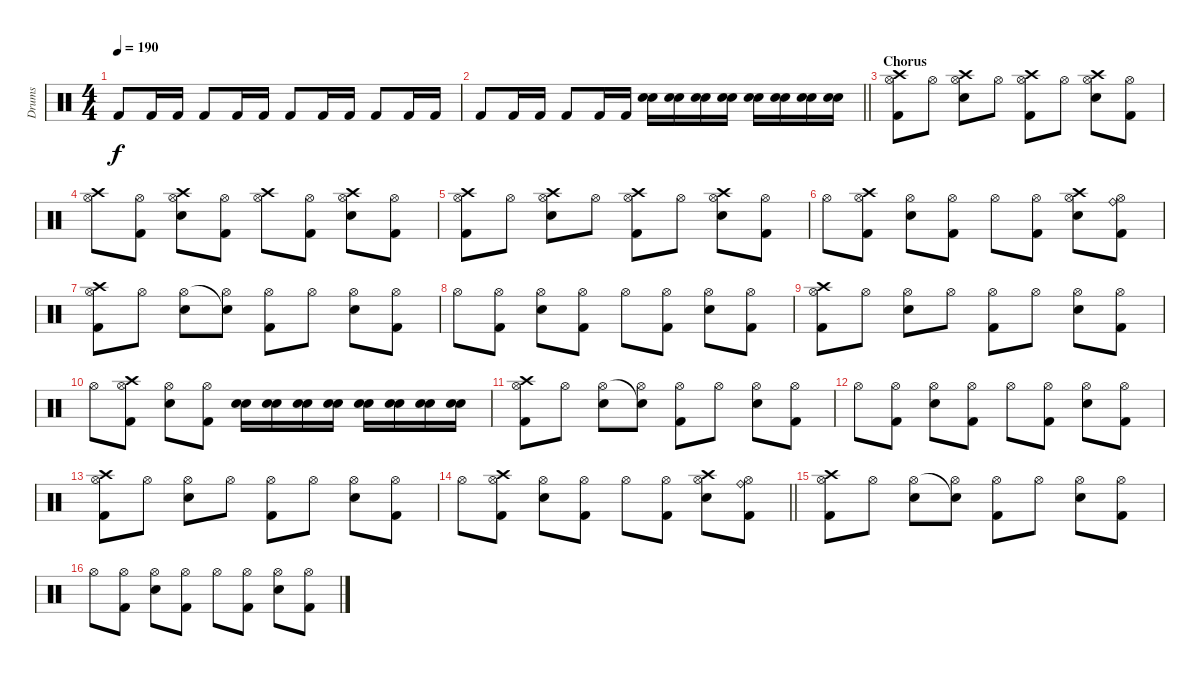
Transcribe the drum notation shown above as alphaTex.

\track ("Drums" "Drums") {instrument percussion}
\staff {score}
\articulation defaults
\ts (4 4)
\tempo 190
\clef neutral
\ks c "Kick (hit) 2".8{dy f} "Kick (hit) 2".16 "Kick (hit) 2".16 "Kick (hit) 2".8 "Kick (hit) 2".16 "Kick (hit) 2".16 "Kick (hit) 2".8 "Kick (hit) 2".16 "Kick (hit) 2".16 "Kick (hit) 2".8 "Kick (hit) 2".16 "Kick (hit) 2".16
|
\barLineRight lightlight "Kick (hit) 2".8 "Kick (hit) 2".16 "Kick (hit) 2".16 "Kick (hit) 2".8 "Kick (hit) 2".16 "Kick (hit) 2".16
("Snare (hit) 2" "Electric Snare (hit)").16 ("Snare (hit) 2" "Electric Snare (hit)").16 ("Snare (hit) 2" "Electric Snare (hit)").16 ("Snare (hit) 2" "Electric Snare (hit)").16 ("Snare (hit) 2" "Electric Snare (hit)").16 ("Snare (hit) 2" "Electric Snare (hit)").16 ("Snare (hit) 2" "Electric Snare (hit)").16 ("Snare (hit) 2" "Electric Snare (hit)").16 |
\section ("" "Chorus")
("Crash high (hit)" "Hi-Hat (open)" "Kick (hit) 2").8 "Hi-Hat (open)".8 ("Crash high (hit)" "Hi-Hat (open)" "Electric Snare (hit)").8 "Hi-Hat (open)".8 ("Crash high (hit)" "Hi-Hat (open)" "Kick (hit) 2").8 "Hi-Hat (open)".8 ("Crash high (hit)" "Hi-Hat (open)" "Electric Snare (hit)").8 ("Hi-Hat (open)" "Kick (hit) 2").8 |
("Crash high (hit)" "Hi-Hat (open)").8 ("Hi-Hat (open)" "Kick (hit) 2").8 ("Crash high (hit)" "Hi-Hat (open)" "Electric Snare (hit)").8 ("Hi-Hat (open)" "Kick (hit) 2").8 ("Crash high (hit)" "Hi-Hat (open)").8 ("Hi-Hat (open)" "Kick (hit) 2").8 ("Crash high (hit)" "Hi-Hat (open)" "Electric Snare (hit)").8 ("Hi-Hat (open)" "Kick (hit) 2").8 |
("Crash high (hit)" "Hi-Hat (open)" "Kick (hit) 2").8 "Hi-Hat (open)".8 ("Crash high (hit)" "Hi-Hat (open)" "Electric Snare (hit)").8 "Hi-Hat (open)".8 ("Crash high (hit)" "Hi-Hat (open)" "Kick (hit) 2").8 "Hi-Hat (open)".8 ("Crash high (hit)" "Hi-Hat (open)" "Electric Snare (hit)").8 ("Hi-Hat (open)" "Kick (hit) 2").8 |
"Hi-Hat (open)".8 ("Crash high (hit)" "Hi-Hat (open)" "Kick (hit) 2").8 ("Hi-Hat (open)" "Electric Snare (hit)").8 ("Hi-Hat (open)" "Kick (hit) 2").8 "Hi-Hat (open)".8 ("Hi-Hat (open)" "Kick (hit) 2").8 ("Crash high (hit)" "Hi-Hat (open)" "Electric Snare (hit)").8 ("Ride (bell)" "Hi-Hat (open)" "Kick (hit) 2").8 |
("Crash high (hit)" "Hi-Hat (open)" "Kick (hit) 2").8 "Hi-Hat (open)".8 ("Hi-Hat (open)" "Electric Snare (hit)").8 ("Snare (hit)"{t} "Hi-Hat (open)").8 ("Hi-Hat (open)" "Kick (hit) 2").8 "Hi-Hat (open)".8 ("Hi-Hat (open)" "Electric Snare (hit)").8 ("Hi-Hat (open)" "Kick (hit) 2").8 |
"Hi-Hat (open)".8 ("Hi-Hat (open)" "Kick (hit) 2").8 ("Hi-Hat (open)" "Electric Snare (hit)").8 ("Hi-Hat (open)" "Kick (hit) 2").8 "Hi-Hat (open)".8 ("Hi-Hat (open)" "Kick (hit) 2").8 ("Hi-Hat (open)" "Electric Snare (hit)").8 ("Hi-Hat (open)" "Kick (hit) 2").8 |
("Crash high (hit)" "Hi-Hat (open)" "Kick (hit) 2").8 "Hi-Hat (open)".8 ("Hi-Hat (open)" "Electric Snare (hit)").8 "Hi-Hat (open)".8 ("Hi-Hat (open)" "Kick (hit) 2").8 "Hi-Hat (open)".8 ("Hi-Hat (open)" "Electric Snare (hit)").8 ("Hi-Hat (open)" "Kick (hit) 2").8 |
"Hi-Hat (open)".8 ("Crash high (hit)" "Hi-Hat (open)" "Kick (hit) 2").8 ("Hi-Hat (open)" "Electric Snare (hit)").8 ("Hi-Hat (open)" "Kick (hit) 2").8 ("Snare (hit) 2" "Electric Snare (hit)").16 ("Snare (hit) 2" "Electric Snare (hit)").16 ("Snare (hit) 2" "Electric Snare (hit)").16 ("Snare (hit) 2" "Electric Snare (hit)").16 ("Snare (hit) 2" "Electric Snare (hit)").16 ("Snare (hit) 2" "Electric Snare (hit)").16 ("Snare (hit) 2" "Electric Snare (hit)").16 ("Snare (hit) 2" "Electric Snare (hit)").16 |
("Crash high (hit)" "Hi-Hat (open)" "Kick (hit) 2").8 "Hi-Hat (open)".8 ("Hi-Hat (open)" "Electric Snare (hit)").8 ("Snare (hit)"{t} "Hi-Hat (open)").8 ("Hi-Hat (open)" "Kick (hit) 2").8 "Hi-Hat (open)".8 ("Hi-Hat (open)" "Electric Snare (hit)").8 ("Hi-Hat (open)" "Kick (hit) 2").8 |
"Hi-Hat (open)".8 ("Hi-Hat (open)" "Kick (hit) 2").8 ("Hi-Hat (open)" "Electric Snare (hit)").8 ("Hi-Hat (open)" "Kick (hit) 2").8 "Hi-Hat (open)".8 ("Hi-Hat (open)" "Kick (hit) 2").8 ("Hi-Hat (open)" "Electric Snare (hit)").8 ("Hi-Hat (open)" "Kick (hit) 2").8 |
("Crash high (hit)" "Hi-Hat (open)" "Kick (hit) 2").8 "Hi-Hat (open)".8 ("Hi-Hat (open)" "Electric Snare (hit)").8 "Hi-Hat (open)".8 ("Hi-Hat (open)" "Kick (hit) 2").8 "Hi-Hat (open)".8 ("Hi-Hat (open)" "Electric Snare (hit)").8 ("Hi-Hat (open)" "Kick (hit) 2").8 |
\barLineRight lightlight "Hi-Hat (open)".8
("Crash high (hit)" "Hi-Hat (open)" "Kick (hit) 2").8 ("Hi-Hat (open)" "Electric Snare (hit)").8 ("Hi-Hat (open)" "Kick (hit) 2").8 "Hi-Hat (open)".8 ("Hi-Hat (open)" "Kick (hit) 2").8 ("Crash high (hit)" "Hi-Hat (open)" "Electric Snare (hit)").8 ("Ride (bell)" "Hi-Hat (open)" "Kick (hit) 2").8 |
("Crash high (hit)" "Hi-Hat (open)" "Kick (hit) 2").8 "Hi-Hat (open)".8 ("Hi-Hat (open)" "Electric Snare (hit)").8 ("Snare (hit)"{t} "Hi-Hat (open)").8 ("Hi-Hat (open)" "Kick (hit) 2").8 "Hi-Hat (open)".8 ("Hi-Hat (open)" "Electric Snare (hit)").8 ("Hi-Hat (open)" "Kick (hit) 2").8 |
"Hi-Hat (open)".8 ("Hi-Hat (open)" "Kick (hit) 2").8 ("Hi-Hat (open)" "Electric Snare (hit)").8 ("Hi-Hat (open)" "Kick (hit) 2").8 "Hi-Hat (open)".8 ("Hi-Hat (open)" "Kick (hit) 2").8 ("Hi-Hat (open)" "Electric Snare (hit)").8 ("Hi-Hat (open)" "Kick (hit) 2").8
